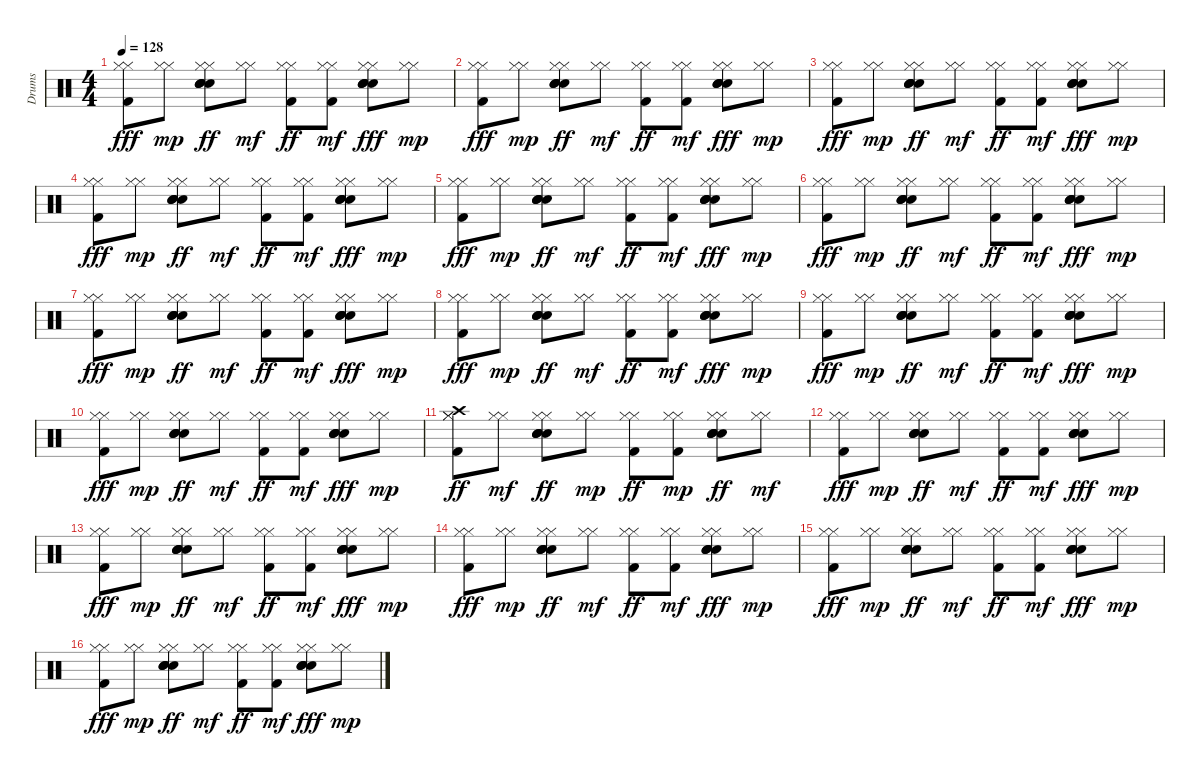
\track ("Drums" "Drums") {instrument percussion}
\staff {score}
\articulation defaults
\ts (4 4)
\tempo 128
\clef neutral
\ks c
("Kick (hit) 2" "Hi-Hat (closed)" "Hi-Hat (closed)").8{dy fff} ("Hi-Hat (closed)" "Hi-Hat (closed)").8{dy mp} ("Hi-Hat (closed)" "Hi-Hat (closed)" "Snare (hit) 2" "Electric Snare (hit)" "Electric Snare (hit)" "Electric Snare (hit)").8{dy ff} ("Hi-Hat (closed)" "Hi-Hat (closed)").8{dy mf} ("Kick (hit) 2" "Hi-Hat (closed)" "Hi-Hat (closed)").8{dy ff} ("Kick (hit) 2" "Hi-Hat (closed)" "Hi-Hat (closed)").8{dy mf} ("Snare (hit) 2" "Hi-Hat (closed)" "Hi-Hat (closed)" "Electric Snare (hit)" "Electric Snare (hit)" "Electric Snare (hit)").8{dy fff} ("Hi-Hat (closed)" "Hi-Hat (closed)").8{dy mp} |
("Kick (hit) 2" "Hi-Hat (closed)" "Hi-Hat (closed)").8{dy fff} ("Hi-Hat (closed)" "Hi-Hat (closed)").8{dy mp} ("Hi-Hat (closed)" "Hi-Hat (closed)" "Snare (hit) 2" "Electric Snare (hit)" "Electric Snare (hit)" "Electric Snare (hit)").8{dy ff} ("Hi-Hat (closed)" "Hi-Hat (closed)").8{dy mf} ("Kick (hit) 2" "Hi-Hat (closed)" "Hi-Hat (closed)").8{dy ff} ("Kick (hit) 2" "Hi-Hat (closed)" "Hi-Hat (closed)").8{dy mf} ("Snare (hit) 2" "Hi-Hat (closed)" "Hi-Hat (closed)" "Electric Snare (hit)" "Electric Snare (hit)" "Electric Snare (hit)").8{dy fff} ("Hi-Hat (closed)" "Hi-Hat (closed)").8{dy mp} |
("Kick (hit) 2" "Hi-Hat (closed)" "Hi-Hat (closed)").8{dy fff} ("Hi-Hat (closed)" "Hi-Hat (closed)").8{dy mp} ("Hi-Hat (closed)" "Hi-Hat (closed)" "Snare (hit) 2" "Electric Snare (hit)" "Electric Snare (hit)" "Electric Snare (hit)").8{dy ff} ("Hi-Hat (closed)" "Hi-Hat (closed)").8{dy mf} ("Kick (hit) 2" "Hi-Hat (closed)" "Hi-Hat (closed)").8{dy ff} ("Kick (hit) 2" "Hi-Hat (closed)" "Hi-Hat (closed)").8{dy mf} ("Snare (hit) 2" "Hi-Hat (closed)" "Hi-Hat (closed)" "Electric Snare (hit)" "Electric Snare (hit)" "Electric Snare (hit)").8{dy fff} ("Hi-Hat (closed)" "Hi-Hat (closed)").8{dy mp} |
("Kick (hit) 2" "Hi-Hat (closed)" "Hi-Hat (closed)").8{dy fff} ("Hi-Hat (closed)" "Hi-Hat (closed)").8{dy mp} ("Hi-Hat (closed)" "Hi-Hat (closed)" "Snare (hit) 2" "Electric Snare (hit)" "Electric Snare (hit)" "Electric Snare (hit)").8{dy ff} ("Hi-Hat (closed)" "Hi-Hat (closed)").8{dy mf} ("Kick (hit) 2" "Hi-Hat (closed)" "Hi-Hat (closed)").8{dy ff} ("Kick (hit) 2" "Hi-Hat (closed)" "Hi-Hat (closed)").8{dy mf} ("Snare (hit) 2" "Hi-Hat (closed)" "Hi-Hat (closed)" "Electric Snare (hit)" "Electric Snare (hit)" "Electric Snare (hit)").8{dy fff} ("Hi-Hat (closed)" "Hi-Hat (closed)").8{dy mp} |
("Kick (hit) 2" "Hi-Hat (closed)" "Hi-Hat (closed)").8{dy fff} ("Hi-Hat (closed)" "Hi-Hat (closed)").8{dy mp} ("Hi-Hat (closed)" "Hi-Hat (closed)" "Snare (hit) 2" "Electric Snare (hit)" "Electric Snare (hit)" "Electric Snare (hit)").8{dy ff} ("Hi-Hat (closed)" "Hi-Hat (closed)").8{dy mf} ("Kick (hit) 2" "Hi-Hat (closed)" "Hi-Hat (closed)").8{dy ff} ("Kick (hit) 2" "Hi-Hat (closed)" "Hi-Hat (closed)").8{dy mf} ("Snare (hit) 2" "Hi-Hat (closed)" "Hi-Hat (closed)" "Electric Snare (hit)" "Electric Snare (hit)" "Electric Snare (hit)").8{dy fff} ("Hi-Hat (closed)" "Hi-Hat (closed)").8{dy mp} |
("Kick (hit) 2" "Hi-Hat (closed)" "Hi-Hat (closed)").8{dy fff} ("Hi-Hat (closed)" "Hi-Hat (closed)").8{dy mp} ("Hi-Hat (closed)" "Hi-Hat (closed)" "Snare (hit) 2" "Electric Snare (hit)" "Electric Snare (hit)" "Electric Snare (hit)").8{dy ff} ("Hi-Hat (closed)" "Hi-Hat (closed)").8{dy mf} ("Kick (hit) 2" "Hi-Hat (closed)" "Hi-Hat (closed)").8{dy ff} ("Kick (hit) 2" "Hi-Hat (closed)" "Hi-Hat (closed)").8{dy mf} ("Snare (hit) 2" "Hi-Hat (closed)" "Hi-Hat (closed)" "Electric Snare (hit)" "Electric Snare (hit)" "Electric Snare (hit)").8{dy fff} ("Hi-Hat (closed)" "Hi-Hat (closed)").8{dy mp} |
("Kick (hit) 2" "Hi-Hat (closed)" "Hi-Hat (closed)").8{dy fff} ("Hi-Hat (closed)" "Hi-Hat (closed)").8{dy mp} ("Hi-Hat (closed)" "Hi-Hat (closed)" "Snare (hit) 2" "Electric Snare (hit)" "Electric Snare (hit)" "Electric Snare (hit)").8{dy ff} ("Hi-Hat (closed)" "Hi-Hat (closed)").8{dy mf} ("Kick (hit) 2" "Hi-Hat (closed)" "Hi-Hat (closed)").8{dy ff} ("Kick (hit) 2" "Hi-Hat (closed)" "Hi-Hat (closed)").8{dy mf} ("Snare (hit) 2" "Hi-Hat (closed)" "Hi-Hat (closed)" "Electric Snare (hit)" "Electric Snare (hit)" "Electric Snare (hit)").8{dy fff} ("Hi-Hat (closed)" "Hi-Hat (closed)").8{dy mp} |
("Kick (hit) 2" "Hi-Hat (closed)" "Hi-Hat (closed)").8{dy fff} ("Hi-Hat (closed)" "Hi-Hat (closed)").8{dy mp} ("Hi-Hat (closed)" "Hi-Hat (closed)" "Snare (hit) 2" "Electric Snare (hit)" "Electric Snare (hit)" "Electric Snare (hit)").8{dy ff} ("Hi-Hat (closed)" "Hi-Hat (closed)").8{dy mf} ("Kick (hit) 2" "Hi-Hat (closed)" "Hi-Hat (closed)").8{dy ff} ("Kick (hit) 2" "Hi-Hat (closed)" "Hi-Hat (closed)").8{dy mf} ("Snare (hit) 2" "Hi-Hat (closed)" "Hi-Hat (closed)" "Electric Snare (hit)" "Electric Snare (hit)" "Electric Snare (hit)").8{dy fff} ("Hi-Hat (closed)" "Hi-Hat (closed)").8{dy mp} |
("Kick (hit) 2" "Hi-Hat (closed)" "Hi-Hat (closed)").8{dy fff} ("Hi-Hat (closed)" "Hi-Hat (closed)").8{dy mp} ("Hi-Hat (closed)" "Hi-Hat (closed)" "Snare (hit) 2" "Electric Snare (hit)" "Electric Snare (hit)" "Electric Snare (hit)").8{dy ff} ("Hi-Hat (closed)" "Hi-Hat (closed)").8{dy mf} ("Kick (hit) 2" "Hi-Hat (closed)" "Hi-Hat (closed)").8{dy ff} ("Kick (hit) 2" "Hi-Hat (closed)" "Hi-Hat (closed)").8{dy mf} ("Snare (hit) 2" "Hi-Hat (closed)" "Hi-Hat (closed)" "Electric Snare (hit)" "Electric Snare (hit)" "Electric Snare (hit)").8{dy fff} ("Hi-Hat (closed)" "Hi-Hat (closed)").8{dy mp} |
("Kick (hit) 2" "Hi-Hat (closed)" "Hi-Hat (closed)").8{dy fff} ("Hi-Hat (closed)" "Hi-Hat (closed)").8{dy mp} ("Hi-Hat (closed)" "Hi-Hat (closed)" "Snare (hit) 2" "Electric Snare (hit)" "Electric Snare (hit)" "Electric Snare (hit)").8{dy ff} ("Hi-Hat (closed)" "Hi-Hat (closed)").8{dy mf} ("Kick (hit) 2" "Hi-Hat (closed)" "Hi-Hat (closed)").8{dy ff} ("Kick (hit) 2" "Hi-Hat (closed)" "Hi-Hat (closed)").8{dy mf} ("Snare (hit) 2" "Hi-Hat (closed)" "Hi-Hat (closed)" "Electric Snare (hit)" "Electric Snare (hit)" "Electric Snare (hit)").8{dy fff} ("Hi-Hat (closed)" "Hi-Hat (closed)").8{dy mp} |
("Hi-Hat (closed)" "Hi-Hat (closed)" "Crash high (hit)" "Kick (hit) 2").8{dy ff} ("Hi-Hat (closed)" "Hi-Hat (closed)").8{dy mf} ("Snare (hit) 2" "Hi-Hat (closed)" "Hi-Hat (closed)" "Electric Snare (hit)" "Electric Snare (hit)" "Electric Snare (hit)").8{dy ff} ("Hi-Hat (closed)" "Hi-Hat (closed)").8{dy mp} ("Hi-Hat (closed)" "Hi-Hat (closed)" "Kick (hit) 2").8{dy ff} ("Hi-Hat (closed)" "Hi-Hat (closed)" "Kick (hit) 2").8{dy mp} ("Hi-Hat (closed)" "Snare (hit) 2" "Hi-Hat (closed)" "Electric Snare (hit)" "Electric Snare (hit)" "Electric Snare (hit)").8{dy ff} ("Hi-Hat (closed)" "Hi-Hat (closed)").8{dy mf} |
("Kick (hit) 2" "Hi-Hat (closed)" "Hi-Hat (closed)").8{dy fff} ("Hi-Hat (closed)" "Hi-Hat (closed)").8{dy mp} ("Hi-Hat (closed)" "Hi-Hat (closed)" "Snare (hit) 2" "Electric Snare (hit)" "Electric Snare (hit)" "Electric Snare (hit)").8{dy ff} ("Hi-Hat (closed)" "Hi-Hat (closed)").8{dy mf} ("Kick (hit) 2" "Hi-Hat (closed)" "Hi-Hat (closed)").8{dy ff} ("Kick (hit) 2" "Hi-Hat (closed)" "Hi-Hat (closed)").8{dy mf} ("Snare (hit) 2" "Hi-Hat (closed)" "Hi-Hat (closed)" "Electric Snare (hit)" "Electric Snare (hit)" "Electric Snare (hit)").8{dy fff} ("Hi-Hat (closed)" "Hi-Hat (closed)").8{dy mp} |
("Kick (hit) 2" "Hi-Hat (closed)" "Hi-Hat (closed)").8{dy fff} ("Hi-Hat (closed)" "Hi-Hat (closed)").8{dy mp} ("Hi-Hat (closed)" "Hi-Hat (closed)" "Snare (hit) 2" "Electric Snare (hit)" "Electric Snare (hit)" "Electric Snare (hit)").8{dy ff} ("Hi-Hat (closed)" "Hi-Hat (closed)").8{dy mf} ("Kick (hit) 2" "Hi-Hat (closed)" "Hi-Hat (closed)").8{dy ff} ("Kick (hit) 2" "Hi-Hat (closed)" "Hi-Hat (closed)").8{dy mf} ("Snare (hit) 2" "Hi-Hat (closed)" "Hi-Hat (closed)" "Electric Snare (hit)" "Electric Snare (hit)" "Electric Snare (hit)").8{dy fff} ("Hi-Hat (closed)" "Hi-Hat (closed)").8{dy mp} |
("Kick (hit) 2" "Hi-Hat (closed)" "Hi-Hat (closed)").8{dy fff} ("Hi-Hat (closed)" "Hi-Hat (closed)").8{dy mp} ("Hi-Hat (closed)" "Hi-Hat (closed)" "Snare (hit) 2" "Electric Snare (hit)" "Electric Snare (hit)" "Electric Snare (hit)").8{dy ff} ("Hi-Hat (closed)" "Hi-Hat (closed)").8{dy mf} ("Kick (hit) 2" "Hi-Hat (closed)" "Hi-Hat (closed)").8{dy ff} ("Kick (hit) 2" "Hi-Hat (closed)" "Hi-Hat (closed)").8{dy mf} ("Snare (hit) 2" "Hi-Hat (closed)" "Hi-Hat (closed)" "Electric Snare (hit)" "Electric Snare (hit)" "Electric Snare (hit)").8{dy fff} ("Hi-Hat (closed)" "Hi-Hat (closed)").8{dy mp} |
("Kick (hit) 2" "Hi-Hat (closed)" "Hi-Hat (closed)").8{dy fff} ("Hi-Hat (closed)" "Hi-Hat (closed)").8{dy mp} ("Hi-Hat (closed)" "Hi-Hat (closed)" "Snare (hit) 2" "Electric Snare (hit)" "Electric Snare (hit)" "Electric Snare (hit)").8{dy ff} ("Hi-Hat (closed)" "Hi-Hat (closed)").8{dy mf} ("Kick (hit) 2" "Hi-Hat (closed)" "Hi-Hat (closed)").8{dy ff} ("Kick (hit) 2" "Hi-Hat (closed)" "Hi-Hat (closed)").8{dy mf} ("Snare (hit) 2" "Hi-Hat (closed)" "Hi-Hat (closed)" "Electric Snare (hit)" "Electric Snare (hit)" "Electric Snare (hit)").8{dy fff} ("Hi-Hat (closed)" "Hi-Hat (closed)").8{dy mp} |
("Kick (hit) 2" "Hi-Hat (closed)" "Hi-Hat (closed)").8{dy fff} ("Hi-Hat (closed)" "Hi-Hat (closed)").8{dy mp} ("Hi-Hat (closed)" "Hi-Hat (closed)" "Snare (hit) 2" "Electric Snare (hit)" "Electric Snare (hit)" "Electric Snare (hit)").8{dy ff} ("Hi-Hat (closed)" "Hi-Hat (closed)").8{dy mf} ("Kick (hit) 2" "Hi-Hat (closed)" "Hi-Hat (closed)").8{dy ff} ("Kick (hit) 2" "Hi-Hat (closed)" "Hi-Hat (closed)").8{dy mf} ("Snare (hit) 2" "Hi-Hat (closed)" "Hi-Hat (closed)" "Electric Snare (hit)" "Electric Snare (hit)" "Electric Snare (hit)").8{dy fff} ("Hi-Hat (closed)" "Hi-Hat (closed)").8{dy mp}
